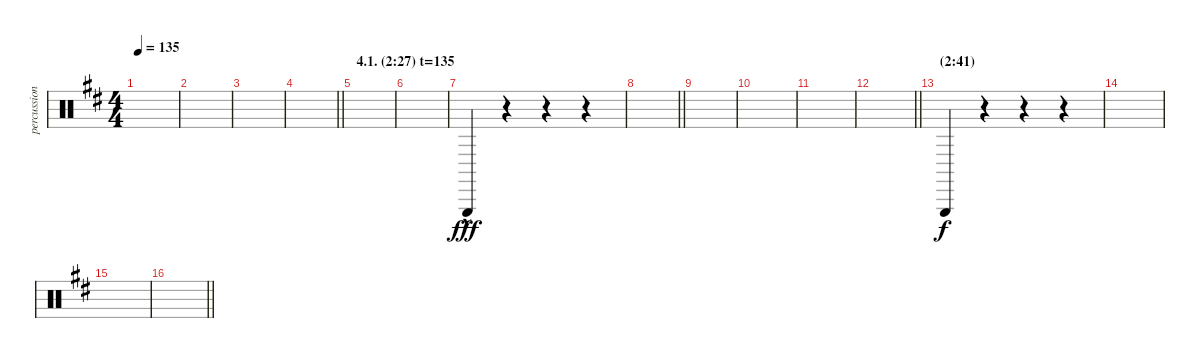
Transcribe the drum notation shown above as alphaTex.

\track ("percussion" "percussion") {instrument percussion}
\staff {score}
\articulation defaults
\ts (4 4)
\tempo 135
\clef neutral
\ks d
|
|
|
\barLineRight lightlight
|
\section ("" "4.1. (2:27) t=135")
|
|
"Triangle (hit)"{hac}.4{dy fff} r.4 r.4 r.4 |
\barLineRight lightlight
|
|
|
|
\barLineRight lightlight
|
\section ("" "(2:41)")
"Triangle (hit)".4{dy f} r.4 r.4 r.4 |
|
|
\barLineRight lightlight
